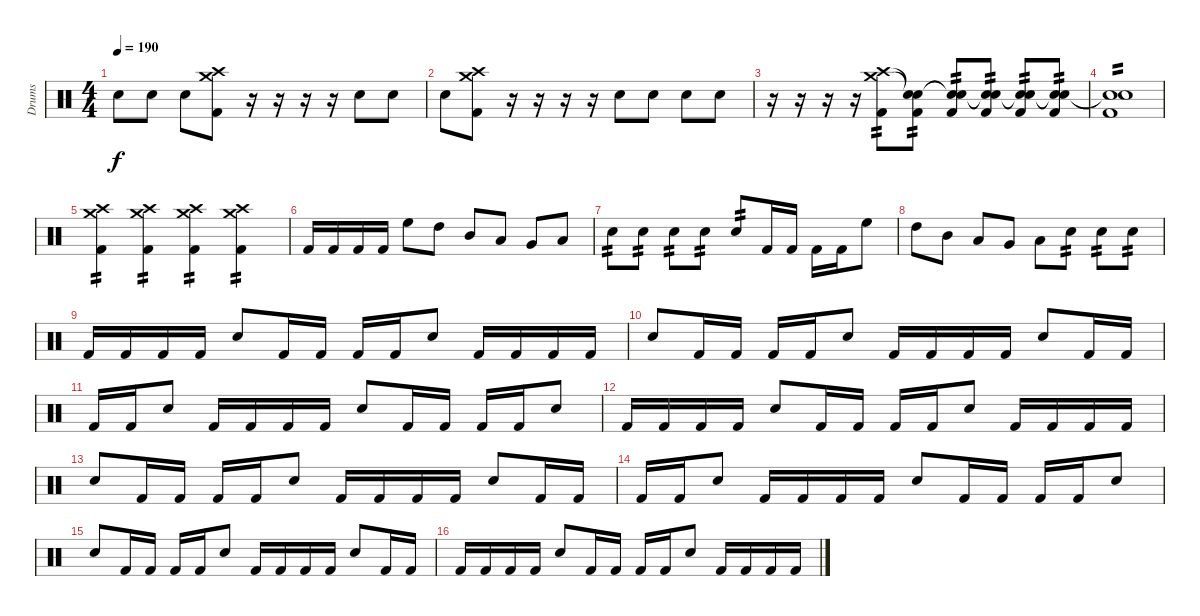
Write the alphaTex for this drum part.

\track ("Drums" "Drums") {instrument percussion}
\staff {score}
\articulation defaults
\ts (4 4)
\tempo 190
\clef neutral
\ks c "Snare (hit) 2".8{dy f} "Snare (hit) 2".8 "Snare (hit) 2".8
("Crash medium (hit)" "Crash high (hit)" "Kick (hit) 2").8 r.16 r.16 r.16 r.16 "Snare (hit) 2".8 "Snare (hit) 2".8 |
"Snare (hit) 2".8 ("Crash medium (hit)" "Crash high (hit)" "Kick (hit) 2").8 r.16 r.16 r.16 r.16 "Snare (hit) 2".8 "Snare (hit) 2".8 "Snare (hit) 2".8 "Snare (hit) 2".8 |
r.16 r.16 r.16 r.16 ("Crash medium (hit)" "Crash high (hit)" "Kick (hit) 2").8{tp 2} ("Snare (hit)"{t} "Snare (hit)"{t} "Kick (hit) 2").8{tp 2} ("Snare (hit)"{t} "Snare (hit)"{t} "Kick (hit) 2").8{tp 2} ("Snare (hit)"{t} "Snare (hit)"{t} "Kick (hit) 2").8{tp 2} ("Snare (hit)"{t} "Snare (hit)"{t} "Kick (hit) 2").8{tp 2} ("Snare (hit)"{t} "Snare (hit)"{t} "Kick (hit) 2").8{tp 2} |
("Snare (hit)"{t} "Snare (hit)"{t} "Kick (hit) 2").1{tp 2} |
("Crash medium (hit)" "Crash high (hit)" "Kick (hit) 2").4{tp 2} ("Crash medium (hit)" "Crash high (hit)" "Kick (hit) 2").4{tp 2} ("Crash medium (hit)" "Crash high (hit)" "Kick (hit) 2").4{tp 2} ("Crash medium (hit)" "Crash high (hit)" "Kick (hit) 2").4{tp 2} |
"Kick (hit) 2".16 "Kick (hit) 2".16 "Kick (hit) 2".16 "Kick (hit) 2".16 "High Floor Tom (hit)".8 "High Tom (hit)".8 "Mid Tom (hit)".8 "Low Tom (hit)".8 "Very Low Tom (hit)".8 "Low Floor Tom (hit)".8 |
"Snare (hit) 2".8{tp 2} "Snare (hit) 2".8{tp 2} "Snare (hit) 2".8{tp 2} "Snare (hit) 2".8{tp 2} "Snare (hit) 2".8{tp 2} "Kick (hit) 2".16 "Kick (hit) 2".16 "Kick (hit) 2".16 "Kick (hit) 2".16 "High Floor Tom (hit)".8 |
"High Tom (hit)".8 "Mid Tom (hit)".8 "Low Tom (hit)".8 "Very Low Tom (hit)".8 "Low Floor Tom (hit)".8 "Snare (hit) 2".8{tp 2} "Snare (hit) 2".8{tp 2} "Snare (hit) 2".8{tp 2} |
"Kick (hit) 2".16 "Kick (hit) 2".16 "Kick (hit) 2".16 "Kick (hit) 2".16 "Snare (hit) 2".8 "Kick (hit) 2".16 "Kick (hit) 2".16 "Kick (hit) 2".16 "Kick (hit) 2".16 "Snare (hit) 2".8 "Kick (hit) 2".16 "Kick (hit) 2".16 "Kick (hit) 2".16 "Kick (hit) 2".16 |
"Snare (hit) 2".8 "Kick (hit) 2".16 "Kick (hit) 2".16 "Kick (hit) 2".16 "Kick (hit) 2".16 "Snare (hit) 2".8 "Kick (hit) 2".16 "Kick (hit) 2".16 "Kick (hit) 2".16 "Kick (hit) 2".16 "Snare (hit) 2".8 "Kick (hit) 2".16 "Kick (hit) 2".16 |
"Kick (hit) 2".16 "Kick (hit) 2".16 "Snare (hit) 2".8 "Kick (hit) 2".16 "Kick (hit) 2".16 "Kick (hit) 2".16 "Kick (hit) 2".16 "Snare (hit) 2".8 "Kick (hit) 2".16 "Kick (hit) 2".16 "Kick (hit) 2".16 "Kick (hit) 2".16 "Snare (hit) 2".8 |
"Kick (hit) 2".16 "Kick (hit) 2".16 "Kick (hit) 2".16 "Kick (hit) 2".16 "Snare (hit) 2".8 "Kick (hit) 2".16 "Kick (hit) 2".16 "Kick (hit) 2".16 "Kick (hit) 2".16 "Snare (hit) 2".8 "Kick (hit) 2".16 "Kick (hit) 2".16 "Kick (hit) 2".16 "Kick (hit) 2".16 |
"Snare (hit) 2".8 "Kick (hit) 2".16 "Kick (hit) 2".16 "Kick (hit) 2".16 "Kick (hit) 2".16 "Snare (hit) 2".8 "Kick (hit) 2".16 "Kick (hit) 2".16 "Kick (hit) 2".16 "Kick (hit) 2".16 "Snare (hit) 2".8 "Kick (hit) 2".16 "Kick (hit) 2".16 |
"Kick (hit) 2".16 "Kick (hit) 2".16 "Snare (hit) 2".8 "Kick (hit) 2".16 "Kick (hit) 2".16 "Kick (hit) 2".16 "Kick (hit) 2".16 "Snare (hit) 2".8 "Kick (hit) 2".16 "Kick (hit) 2".16 "Kick (hit) 2".16 "Kick (hit) 2".16 "Snare (hit) 2".8 |
"Snare (hit) 2".8 "Kick (hit) 2".16 "Kick (hit) 2".16 "Kick (hit) 2".16 "Kick (hit) 2".16 "Snare (hit) 2".8 "Kick (hit) 2".16 "Kick (hit) 2".16 "Kick (hit) 2".16 "Kick (hit) 2".16 "Snare (hit) 2".8 "Kick (hit) 2".16 "Kick (hit) 2".16 |
"Kick (hit) 2".16 "Kick (hit) 2".16 "Kick (hit) 2".16 "Kick (hit) 2".16 "Snare (hit) 2".8 "Kick (hit) 2".16 "Kick (hit) 2".16 "Kick (hit) 2".16 "Kick (hit) 2".16 "Snare (hit) 2".8 "Kick (hit) 2".16 "Kick (hit) 2".16 "Kick (hit) 2".16 "Kick (hit) 2".16
